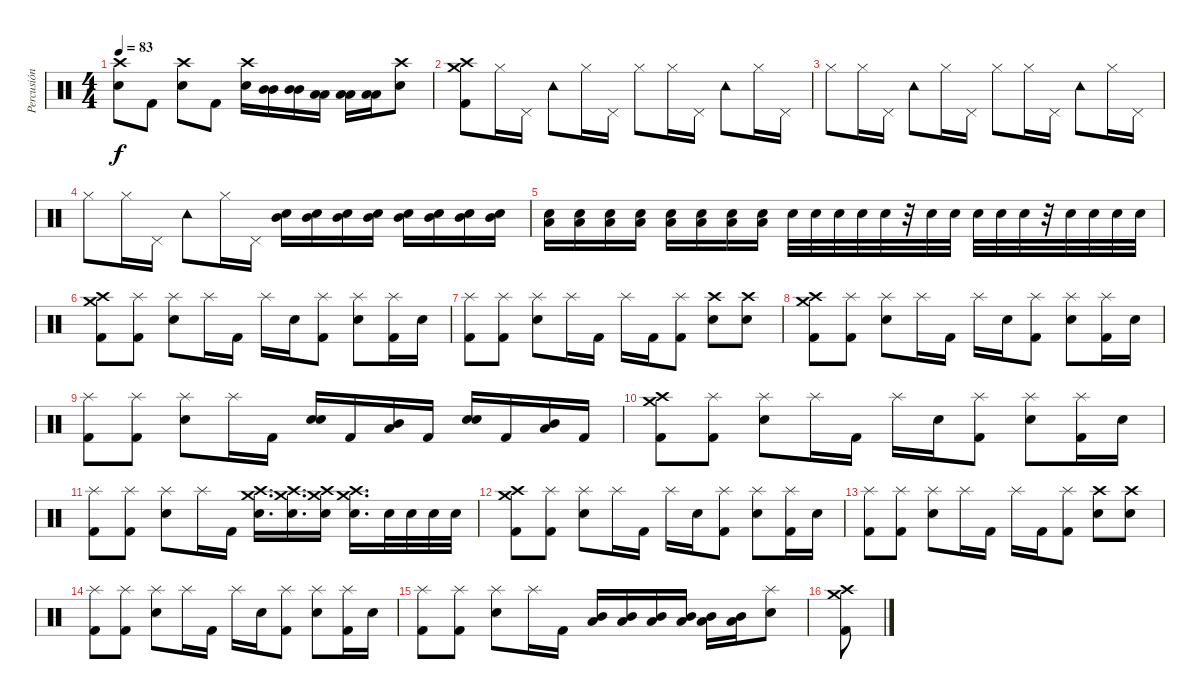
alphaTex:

\track ("Percusión" "Percusión") {instrument percussion}
\staff {score}
\articulation defaults
\ts (4 4)
\tempo 83
\clef neutral
\ks c
("Crash high (hit)" "Electric Snare (hit)").8{dy f} "Kick (hit) 2".8 ("Crash high (hit)" "Electric Snare (hit)").8 "Kick (hit) 2".8 ("Crash high (hit)" "Electric Snare (hit)").16 ("Mid Tom (hit)" "Mid Tom (hit)").16 ("Mid Tom (hit)" "Mid Tom (hit)").16 ("Low Tom (hit)" "Low Tom (hit)").16 ("Low Tom (hit)" "Low Tom (hit)").16 ("Low Floor Tom (hit)" "Low Floor Tom (hit)").16 ("Crash high (hit)" "Electric Snare (hit)").8 |
("Crash high (hit)" "Kick (hit) 2" "Crash medium (hit)").8 "Hi-Hat (closed)".16 "Pedal Hi-Hat (hit)".16 "Tambourine (hit)".8 "Hi-Hat (closed)".16 "Pedal Hi-Hat (hit)".16 "Hi-Hat (closed)".8 "Hi-Hat (closed)".16 "Pedal Hi-Hat (hit)".16 "Tambourine (hit)".8 "Hi-Hat (closed)".16 "Pedal Hi-Hat (hit)".16 |
"Hi-Hat (closed)".8 "Hi-Hat (closed)".16 "Pedal Hi-Hat (hit)".16 "Tambourine (hit)".8 "Hi-Hat (closed)".16 "Pedal Hi-Hat (hit)".16 "Hi-Hat (closed)".8 "Hi-Hat (closed)".16 "Pedal Hi-Hat (hit)".16 "Tambourine (hit)".8 "Hi-Hat (closed)".16 "Pedal Hi-Hat (hit)".16 |
"Hi-Hat (closed)".8 "Hi-Hat (closed)".16 "Pedal Hi-Hat (hit)".16 "Tambourine (hit)".8 "Hi-Hat (closed)".16 "Pedal Hi-Hat (hit)".16 ("Mid Tom (hit)" "Electric Snare (hit)").16{volume 13} ("Mid Tom (hit)" "Electric Snare (hit)").16 ("Mid Tom (hit)" "Electric Snare (hit)").16 ("Mid Tom (hit)" "Electric Snare (hit)").16 ("Mid Tom (hit)" "Electric Snare (hit)").16 ("Mid Tom (hit)" "Electric Snare (hit)").16 ("Mid Tom (hit)" "Electric Snare (hit)").16 ("Mid Tom (hit)" "Electric Snare (hit)").16 |
("Low Tom (hit)" "Electric Snare (hit)").16{volume 14} ("Low Tom (hit)" "Electric Snare (hit)").16 ("Low Tom (hit)" "Electric Snare (hit)").16 ("Low Tom (hit)" "Electric Snare (hit)").16 ("Low Tom (hit)" "Electric Snare (hit)").16 ("Low Tom (hit)" "Electric Snare (hit)").16 ("Low Tom (hit)" "Electric Snare (hit)").16 ("Low Tom (hit)" "Electric Snare (hit)").16 "Electric Snare (hit)".32{volume 16} "Electric Snare (hit)".32 "Electric Snare (hit)".32 "Electric Snare (hit)".32 "Electric Snare (hit)".32 r.32 "Electric Snare (hit)".32 "Electric Snare (hit)".32 "Electric Snare (hit)".32 "Electric Snare (hit)".32 "Electric Snare (hit)".32 r.32 "Electric Snare (hit)".32 "Electric Snare (hit)".32 "Electric Snare (hit)".32 "Electric Snare (hit)".32 |
("Crash medium (hit)" "Crash high (hit)" "Kick (hit) 2").8 ("Splash (hit)" "Kick (hit) 2").8 ("Splash (hit)" "Electric Snare (hit)").8 "Splash (hit)".16 "Kick (hit) 2".16 "Splash (hit)".16 "Electric Snare (hit)".16 ("Splash (hit)" "Kick (hit) 2").8 ("Splash (hit)" "Electric Snare (hit)").8 ("Splash (hit)" "Kick (hit) 2").16 "Electric Snare (hit)".16 |
("Splash (hit)" "Kick (hit) 2").8 ("Splash (hit)" "Kick (hit) 2").8 ("Splash (hit)" "Electric Snare (hit)").8 "Splash (hit)".16 "Kick (hit) 2".16 "Splash (hit)".16 "Kick (hit) 2".16 ("Splash (hit)" "Kick (hit) 2").8 ("Crash high (hit)" "Electric Snare (hit)").8 ("Crash high (hit)" "Electric Snare (hit)").8 |
("Crash medium (hit)" "Crash high (hit)" "Kick (hit) 2").8 ("Splash (hit)" "Kick (hit) 2").8 ("Splash (hit)" "Electric Snare (hit)").8 "Splash (hit)".16 "Kick (hit) 2".16 "Splash (hit)".16 "Electric Snare (hit)".16 ("Splash (hit)" "Kick (hit) 2").8 ("Splash (hit)" "Electric Snare (hit)").8 ("Splash (hit)" "Kick (hit) 2").16 "Electric Snare (hit)".16 |
("Splash (hit)" "Kick (hit) 2").8 ("Splash (hit)" "Kick (hit) 2").8 ("Splash (hit)" "Electric Snare (hit)").8 "Splash (hit)".16 "Kick (hit) 2".16 ("Electric Snare (hit)" "Electric Snare (hit)").16 "Kick (hit) 2".16 ("Low Tom (hit)" "Mid Tom (hit)").16 "Kick (hit) 2".16 ("Electric Snare (hit)" "Electric Snare (hit)").16 "Kick (hit) 2".16 ("Low Tom (hit)" "Mid Tom (hit)").16 "Kick (hit) 2".16 |
("Crash medium (hit)" "Crash high (hit)" "Kick (hit) 2").8 ("Splash (hit)" "Kick (hit) 2").8 ("Splash (hit)" "Electric Snare (hit)").8 "Splash (hit)".16 "Kick (hit) 2".16 "Splash (hit)".16 "Electric Snare (hit)".16 ("Splash (hit)" "Kick (hit) 2").8 ("Splash (hit)" "Electric Snare (hit)").8 ("Splash (hit)" "Kick (hit) 2").16 "Electric Snare (hit)".16 |
("Splash (hit)" "Kick (hit) 2").8 ("Splash (hit)" "Kick (hit) 2").8 ("Splash (hit)" "Electric Snare (hit)").8 "Splash (hit)".16 "Kick (hit) 2".16 ("Crash medium (hit)" "Crash high (hit)" "Electric Snare (hit)").16{d} ("Crash medium (hit)" "Crash high (hit)" "Electric Snare (hit)").16{d} ("Crash medium (hit)" "Crash high (hit)" "Electric Snare (hit)").16 ("Crash medium (hit)" "Crash high (hit)" "Electric Snare (hit)").16{d} "Electric Snare (hit)".32 "Electric Snare (hit)".32 "Electric Snare (hit)".32 "Electric Snare (hit)".32 |
("Crash medium (hit)" "Crash high (hit)" "Kick (hit) 2").8 ("Splash (hit)" "Kick (hit) 2").8 ("Splash (hit)" "Electric Snare (hit)").8 "Splash (hit)".16 "Kick (hit) 2".16 "Splash (hit)".16 "Electric Snare (hit)".16 ("Splash (hit)" "Kick (hit) 2").8 ("Splash (hit)" "Electric Snare (hit)").8 ("Splash (hit)" "Kick (hit) 2").16 "Electric Snare (hit)".16 |
("Splash (hit)" "Kick (hit) 2").8 ("Splash (hit)" "Kick (hit) 2").8 ("Splash (hit)" "Electric Snare (hit)").8 "Splash (hit)".16 "Kick (hit) 2".16 "Splash (hit)".16 "Kick (hit) 2".16 ("Splash (hit)" "Kick (hit) 2").8 ("Crash high (hit)" "Electric Snare (hit)").8 ("Crash high (hit)" "Electric Snare (hit)").8 |
("Splash (hit)" "Kick (hit) 2").8 ("Splash (hit)" "Kick (hit) 2").8 ("Splash (hit)" "Electric Snare (hit)").8 "Splash (hit)".16 "Kick (hit) 2".16 "Splash (hit)".16 "Electric Snare (hit)".16 ("Splash (hit)" "Kick (hit) 2").8 ("Splash (hit)" "Electric Snare (hit)").8 ("Splash (hit)" "Kick (hit) 2").16 "Electric Snare (hit)".16 |
("Splash (hit)" "Kick (hit) 2").8 ("Splash (hit)" "Kick (hit) 2").8 ("Splash (hit)" "Electric Snare (hit)").8 "Splash (hit)".16 "Kick (hit) 2".16 ("Low Tom (hit)" "Mid Tom (hit)").16 ("Low Tom (hit)" "Mid Tom (hit)").16 ("Low Tom (hit)" "Mid Tom (hit)").16 ("Low Tom (hit)" "Mid Tom (hit)").16 ("Low Tom (hit)" "Mid Tom (hit)").16 ("Low Tom (hit)" "Mid Tom (hit)").16 ("Splash (hit)" "Electric Snare (hit)").8 |
("Crash medium (hit)" "Crash high (hit)" "Kick (hit) 2").8
